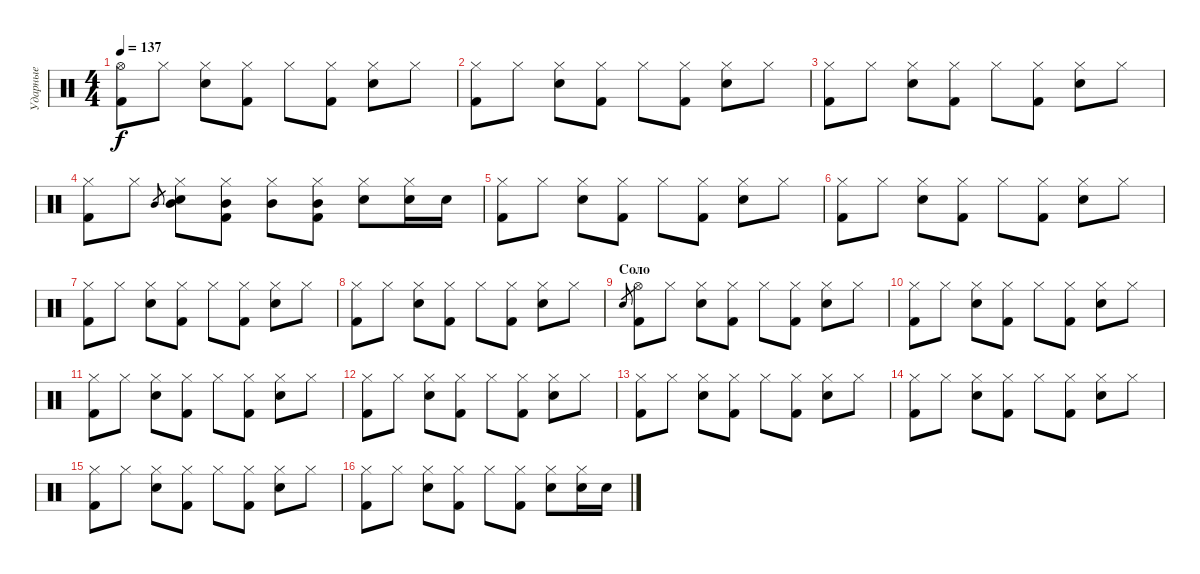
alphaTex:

\track ("Ударные" "Ударные") {instrument percussion}
\staff {score}
\articulation defaults
\ts (4 4)
\tempo 137
\clef neutral
\ks c
("Hi-Hat (open)" "Kick (hit) 2").8{dy f} "Hi-Hat (closed)".8 ("Hi-Hat (closed)" "Electric Snare (hit)").8 ("Hi-Hat (closed)" "Kick (hit) 2").8 "Hi-Hat (closed)".8 ("Hi-Hat (closed)" "Kick (hit) 2").8 ("Hi-Hat (closed)" "Electric Snare (hit)").8 "Hi-Hat (closed)".8 |
("Hi-Hat (closed)" "Kick (hit) 2").8 "Hi-Hat (closed)".8 ("Hi-Hat (closed)" "Electric Snare (hit)").8 ("Hi-Hat (closed)" "Kick (hit) 2").8 "Hi-Hat (closed)".8 ("Hi-Hat (closed)" "Kick (hit) 2").8 ("Hi-Hat (closed)" "Electric Snare (hit)").8 "Hi-Hat (closed)".8 |
("Hi-Hat (closed)" "Kick (hit) 2").8 "Hi-Hat (closed)".8 ("Hi-Hat (closed)" "Electric Snare (hit)").8 ("Hi-Hat (closed)" "Kick (hit) 2").8 "Hi-Hat (closed)".8 ("Hi-Hat (closed)" "Kick (hit) 2").8 ("Hi-Hat (closed)" "Electric Snare (hit)").8 "Hi-Hat (closed)".8 |
("Hi-Hat (closed)" "Kick (hit) 2").8 "Hi-Hat (closed)".8 "Mid Tom (hit)".8{gr} ("Hi-Hat (closed)" "Electric Snare (hit)" "Mid Tom (hit)").8 ("Hi-Hat (closed)" "Kick (hit) 2" "Mid Tom (hit)").8 ("Hi-Hat (closed)" "Mid Tom (hit)").8 ("Hi-Hat (closed)" "Kick (hit) 2" "Mid Tom (hit)").8 ("Hi-Hat (closed)" "Electric Snare (hit)").8 ("Hi-Hat (closed)" "Electric Snare (hit)").16 "Electric Snare (hit)".16 |
("Hi-Hat (closed)" "Kick (hit) 2").8 "Hi-Hat (closed)".8 ("Hi-Hat (closed)" "Electric Snare (hit)").8 ("Hi-Hat (closed)" "Kick (hit) 2").8 "Hi-Hat (closed)".8 ("Hi-Hat (closed)" "Kick (hit) 2").8 ("Hi-Hat (closed)" "Electric Snare (hit)").8 "Hi-Hat (closed)".8 |
("Hi-Hat (closed)" "Kick (hit) 2").8 "Hi-Hat (closed)".8 ("Hi-Hat (closed)" "Electric Snare (hit)").8 ("Hi-Hat (closed)" "Kick (hit) 2").8 "Hi-Hat (closed)".8 ("Hi-Hat (closed)" "Kick (hit) 2").8 ("Hi-Hat (closed)" "Electric Snare (hit)").8 "Hi-Hat (closed)".8 |
("Hi-Hat (closed)" "Kick (hit) 2").8 "Hi-Hat (closed)".8 ("Hi-Hat (closed)" "Electric Snare (hit)").8 ("Hi-Hat (closed)" "Kick (hit) 2").8 "Hi-Hat (closed)".8 ("Hi-Hat (closed)" "Kick (hit) 2").8 ("Hi-Hat (closed)" "Electric Snare (hit)").8 "Hi-Hat (closed)".8 |
("Hi-Hat (closed)" "Kick (hit) 2").8 "Hi-Hat (closed)".8 ("Hi-Hat (closed)" "Electric Snare (hit)").8 ("Hi-Hat (closed)" "Kick (hit) 2").8 "Hi-Hat (closed)".8 ("Hi-Hat (closed)" "Kick (hit) 2").8 ("Hi-Hat (closed)" "Electric Snare (hit)").8 "Hi-Hat (closed)".8 |
\section ("" "Соло")
"Electric Snare (hit)".8{gr} ("Hi-Hat (open)" "Kick (hit) 2").8 "Hi-Hat (closed)".8 ("Hi-Hat (closed)" "Electric Snare (hit)").8 ("Hi-Hat (closed)" "Kick (hit) 2").8 "Hi-Hat (closed)".8 ("Hi-Hat (closed)" "Kick (hit) 2").8 ("Hi-Hat (closed)" "Electric Snare (hit)").8 "Hi-Hat (closed)".8 |
("Hi-Hat (closed)" "Kick (hit) 2").8 "Hi-Hat (closed)".8 ("Hi-Hat (closed)" "Electric Snare (hit)").8 ("Hi-Hat (closed)" "Kick (hit) 2").8 "Hi-Hat (closed)".8 ("Hi-Hat (closed)" "Kick (hit) 2").8 ("Hi-Hat (closed)" "Electric Snare (hit)").8 "Hi-Hat (closed)".8 |
("Hi-Hat (closed)" "Kick (hit) 2").8 "Hi-Hat (closed)".8 ("Hi-Hat (closed)" "Electric Snare (hit)").8 ("Hi-Hat (closed)" "Kick (hit) 2").8 "Hi-Hat (closed)".8 ("Hi-Hat (closed)" "Kick (hit) 2").8 ("Hi-Hat (closed)" "Electric Snare (hit)").8 "Hi-Hat (closed)".8 |
("Hi-Hat (closed)" "Kick (hit) 2").8 "Hi-Hat (closed)".8 ("Hi-Hat (closed)" "Electric Snare (hit)").8 ("Hi-Hat (closed)" "Kick (hit) 2").8 "Hi-Hat (closed)".8 ("Hi-Hat (closed)" "Kick (hit) 2").8 ("Hi-Hat (closed)" "Electric Snare (hit)").8 "Hi-Hat (closed)".8 |
("Hi-Hat (closed)" "Kick (hit) 2").8 "Hi-Hat (closed)".8 ("Hi-Hat (closed)" "Electric Snare (hit)").8 ("Hi-Hat (closed)" "Kick (hit) 2").8 "Hi-Hat (closed)".8 ("Hi-Hat (closed)" "Kick (hit) 2").8 ("Hi-Hat (closed)" "Electric Snare (hit)").8 "Hi-Hat (closed)".8 |
("Hi-Hat (closed)" "Kick (hit) 2").8 "Hi-Hat (closed)".8 ("Hi-Hat (closed)" "Electric Snare (hit)").8 ("Hi-Hat (closed)" "Kick (hit) 2").8 "Hi-Hat (closed)".8 ("Hi-Hat (closed)" "Kick (hit) 2").8 ("Hi-Hat (closed)" "Electric Snare (hit)").8 "Hi-Hat (closed)".8 |
("Hi-Hat (closed)" "Kick (hit) 2").8 "Hi-Hat (closed)".8 ("Hi-Hat (closed)" "Electric Snare (hit)").8 ("Hi-Hat (closed)" "Kick (hit) 2").8 "Hi-Hat (closed)".8 ("Hi-Hat (closed)" "Kick (hit) 2").8 ("Hi-Hat (closed)" "Electric Snare (hit)").8 "Hi-Hat (closed)".8 |
("Hi-Hat (closed)" "Kick (hit) 2").8 "Hi-Hat (closed)".8 ("Hi-Hat (closed)" "Electric Snare (hit)").8 ("Hi-Hat (closed)" "Kick (hit) 2").8 "Hi-Hat (closed)".8 ("Hi-Hat (closed)" "Kick (hit) 2").8 ("Hi-Hat (closed)" "Electric Snare (hit)").8 ("Hi-Hat (closed)" "Electric Snare (hit)").16 "Electric Snare (hit)".16
